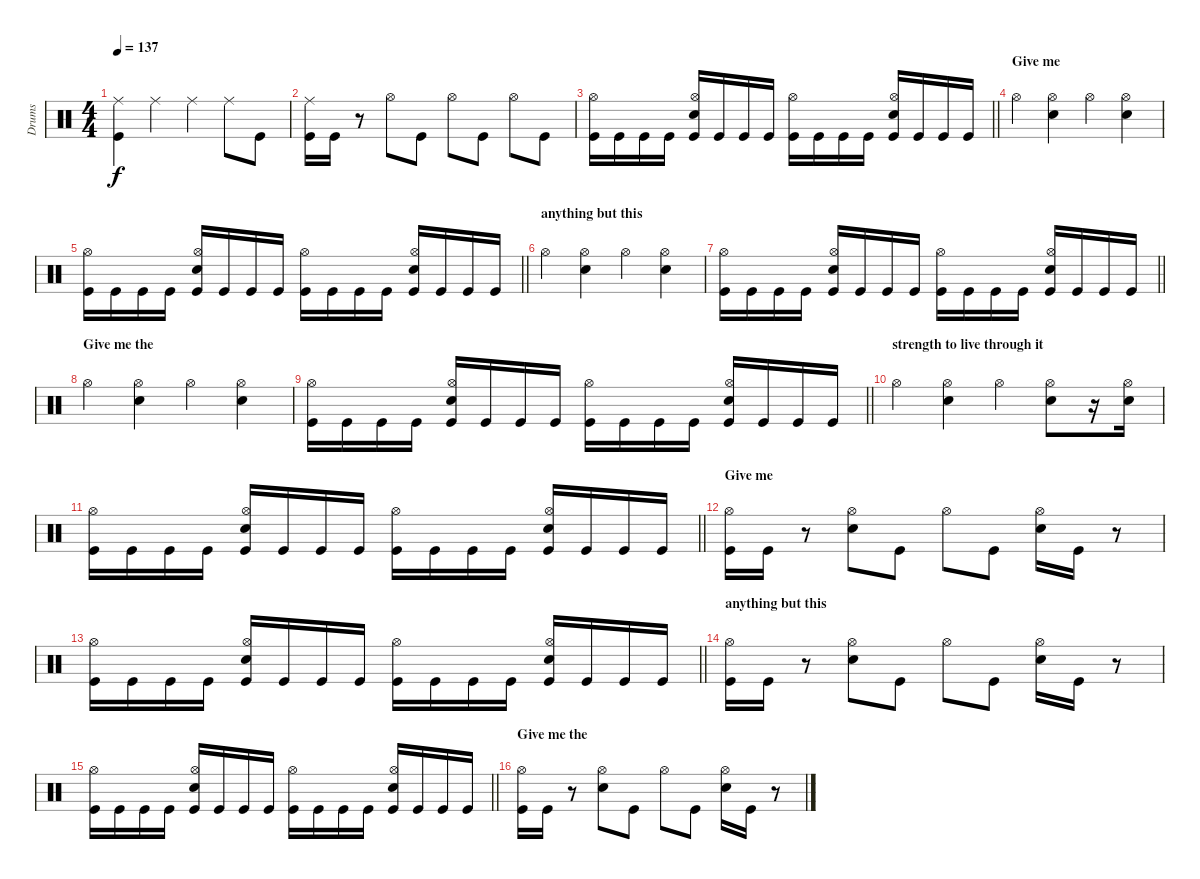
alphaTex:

\track ("Drums" "Drums") {instrument percussion}
\staff {score}
\articulation defaults
\ts (4 4)
\tempo 137
\clef neutral
\ks c
("Ride (middle)" "Kick (hit)").4{dy f} "Ride (middle)".4 "Ride (middle)".4 "Ride (middle)".8 "Kick (hit)".8 |
("Ride (middle)" "Kick (hit)").16 "Kick (hit)".16 r.8 "Hi-Hat (open)".8 "Kick (hit)".8 "Hi-Hat (open)".8 "Kick (hit)".8 "Hi-Hat (open)".8 "Kick (hit)".8 |
\barLineRight lightlight
("Hi-Hat (open)" "Kick (hit)").16 "Kick (hit)".16 "Kick (hit)".16 "Kick (hit)".16 ("Hi-Hat (open)" "Snare (hit) 2" "Kick (hit)").16 "Kick (hit)".16 "Kick (hit)".16 "Kick (hit)".16 ("Hi-Hat (open)" "Kick (hit)").16 "Kick (hit)".16 "Kick (hit)".16 "Kick (hit)".16 ("Hi-Hat (open)" "Snare (hit) 2" "Kick (hit)").16 "Kick (hit)".16 "Kick (hit)".16 "Kick (hit)".16 |
\section ("" "Give me ")
"Hi-Hat (open)".4 ("Hi-Hat (open)" "Snare (hit) 2").4 "Hi-Hat (open)".4 ("Hi-Hat (open)" "Snare (hit) 2").4 |
\barLineRight lightlight
("Hi-Hat (open)" "Kick (hit)").16 "Kick (hit)".16 "Kick (hit)".16 "Kick (hit)".16 ("Hi-Hat (open)" "Snare (hit) 2" "Kick (hit)").16 "Kick (hit)".16 "Kick (hit)".16 "Kick (hit)".16 ("Hi-Hat (open)" "Kick (hit)").16 "Kick (hit)".16 "Kick (hit)".16 "Kick (hit)".16 ("Hi-Hat (open)" "Snare (hit) 2" "Kick (hit)").16 "Kick (hit)".16 "Kick (hit)".16 "Kick (hit)".16 |
\section ("" "anything but this")
"Hi-Hat (open)".4 ("Hi-Hat (open)" "Snare (hit) 2").4 "Hi-Hat (open)".4 ("Hi-Hat (open)" "Snare (hit) 2").4 |
\barLineRight lightlight
("Hi-Hat (open)" "Kick (hit)").16 "Kick (hit)".16 "Kick (hit)".16 "Kick (hit)".16 ("Hi-Hat (open)" "Snare (hit) 2" "Kick (hit)").16 "Kick (hit)".16 "Kick (hit)".16 "Kick (hit)".16 ("Hi-Hat (open)" "Kick (hit)").16 "Kick (hit)".16 "Kick (hit)".16 "Kick (hit)".16 ("Hi-Hat (open)" "Snare (hit) 2" "Kick (hit)").16 "Kick (hit)".16 "Kick (hit)".16 "Kick (hit)".16 |
\section ("" "Give me the")
"Hi-Hat (open)".4 ("Hi-Hat (open)" "Snare (hit) 2").4 "Hi-Hat (open)".4 ("Hi-Hat (open)" "Snare (hit) 2").4 |
\barLineRight lightlight
("Hi-Hat (open)" "Kick (hit)").16 "Kick (hit)".16 "Kick (hit)".16 "Kick (hit)".16 ("Hi-Hat (open)" "Snare (hit) 2" "Kick (hit)").16 "Kick (hit)".16 "Kick (hit)".16 "Kick (hit)".16 ("Hi-Hat (open)" "Kick (hit)").16 "Kick (hit)".16 "Kick (hit)".16 "Kick (hit)".16 ("Hi-Hat (open)" "Snare (hit) 2" "Kick (hit)").16 "Kick (hit)".16 "Kick (hit)".16 "Kick (hit)".16 |
\section ("" "strength to live through it")
"Hi-Hat (open)".4 ("Hi-Hat (open)" "Snare (hit) 2").4 "Hi-Hat (open)".4 ("Hi-Hat (open)" "Snare (hit) 2").8 r.16 ("Hi-Hat (open)" "Snare (hit) 2").16 |
\barLineRight lightlight
("Hi-Hat (open)" "Kick (hit)").16 "Kick (hit)".16 "Kick (hit)".16 "Kick (hit)".16 ("Hi-Hat (open)" "Snare (hit) 2" "Kick (hit)").16 "Kick (hit)".16 "Kick (hit)".16 "Kick (hit)".16 ("Hi-Hat (open)" "Kick (hit)").16 "Kick (hit)".16 "Kick (hit)".16 "Kick (hit)".16 ("Hi-Hat (open)" "Snare (hit) 2" "Kick (hit)").16 "Kick (hit)".16 "Kick (hit)".16 "Kick (hit)".16 |
\section ("" "Give me ")
("Hi-Hat (open)" "Kick (hit)").16 "Kick (hit)".16 r.8 ("Hi-Hat (open)" "Snare (hit) 2").8 "Kick (hit)".8 "Hi-Hat (open)".8 "Kick (hit)".8 ("Hi-Hat (open)" "Snare (hit) 2").16 "Kick (hit)".16 r.8 |
\barLineRight lightlight
("Hi-Hat (open)" "Kick (hit)").16 "Kick (hit)".16 "Kick (hit)".16 "Kick (hit)".16 ("Hi-Hat (open)" "Snare (hit) 2" "Kick (hit)").16 "Kick (hit)".16 "Kick (hit)".16 "Kick (hit)".16 ("Hi-Hat (open)" "Kick (hit)").16 "Kick (hit)".16 "Kick (hit)".16 "Kick (hit)".16 ("Hi-Hat (open)" "Snare (hit) 2" "Kick (hit)").16 "Kick (hit)".16 "Kick (hit)".16 "Kick (hit)".16 |
\section ("" "anything but this")
("Hi-Hat (open)" "Kick (hit)").16 "Kick (hit)".16 r.8 ("Hi-Hat (open)" "Snare (hit) 2").8 "Kick (hit)".8 "Hi-Hat (open)".8 "Kick (hit)".8 ("Hi-Hat (open)" "Snare (hit) 2").16 "Kick (hit)".16 r.8 |
\barLineRight lightlight
("Hi-Hat (open)" "Kick (hit)").16 "Kick (hit)".16 "Kick (hit)".16 "Kick (hit)".16 ("Hi-Hat (open)" "Snare (hit) 2" "Kick (hit)").16 "Kick (hit)".16 "Kick (hit)".16 "Kick (hit)".16 ("Hi-Hat (open)" "Kick (hit)").16 "Kick (hit)".16 "Kick (hit)".16 "Kick (hit)".16 ("Hi-Hat (open)" "Snare (hit) 2" "Kick (hit)").16 "Kick (hit)".16 "Kick (hit)".16 "Kick (hit)".16 |
\section ("" "Give me the")
("Hi-Hat (open)" "Kick (hit)").16 "Kick (hit)".16 r.8 ("Hi-Hat (open)" "Snare (hit) 2").8 "Kick (hit)".8 "Hi-Hat (open)".8 "Kick (hit)".8 ("Hi-Hat (open)" "Snare (hit) 2").16 "Kick (hit)".16 r.8
